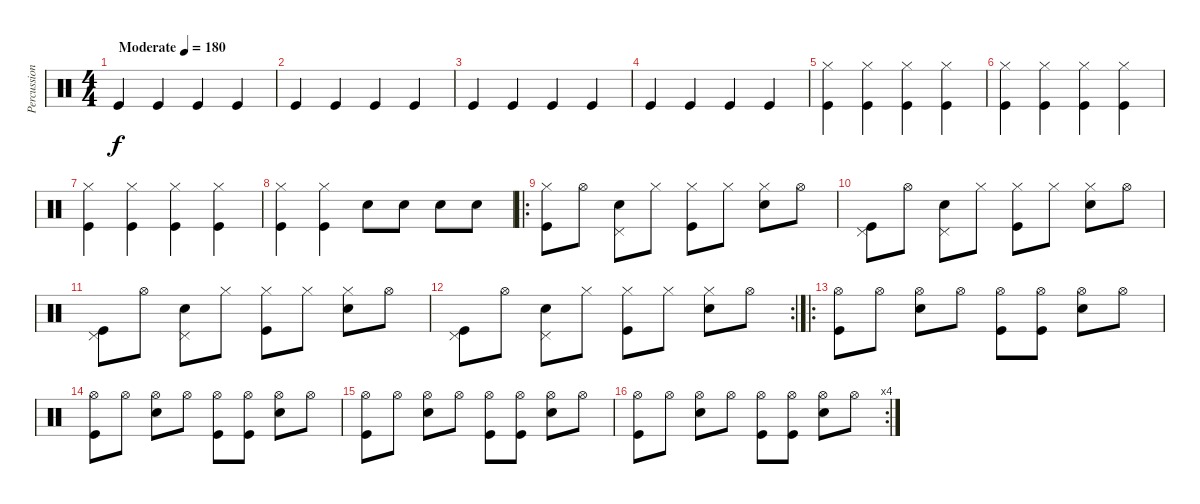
\track ("Percussion" "Percussion") {instrument percussion}
\staff {score}
\articulation defaults
\ts (4 4)
\tempo (180 "Moderate")
\clef neutral
\ks c "Kick (hit)".4{dy f} "Kick (hit)".4 "Kick (hit)".4 "Kick (hit)".4
|
"Kick (hit)".4 "Kick (hit)".4 "Kick (hit)".4 "Kick (hit)".4 |
"Kick (hit)".4 "Kick (hit)".4 "Kick (hit)".4 "Kick (hit)".4 |
"Kick (hit)".4 "Kick (hit)".4 "Kick (hit)".4 "Kick (hit)".4 |
("Hi-Hat (closed)" "Kick (hit)").4 ("Hi-Hat (closed)" "Kick (hit)").4 ("Hi-Hat (closed)" "Kick (hit)").4 ("Hi-Hat (closed)" "Kick (hit)").4 |
("Hi-Hat (closed)" "Kick (hit)").4 ("Hi-Hat (closed)" "Kick (hit)").4 ("Hi-Hat (closed)" "Kick (hit)").4 ("Hi-Hat (closed)" "Kick (hit)").4 |
("Hi-Hat (closed)" "Kick (hit)").4 ("Hi-Hat (closed)" "Kick (hit)").4 ("Hi-Hat (closed)" "Kick (hit)").4 ("Hi-Hat (closed)" "Kick (hit)").4 |
("Hi-Hat (closed)" "Kick (hit)").4 ("Hi-Hat (closed)" "Kick (hit)").4 "Snare (hit) 2".8 "Snare (hit) 2".8 "Snare (hit) 2".8 "Snare (hit) 2".8 |
\ro
("Hi-Hat (closed)" "Kick (hit)").8 "Hi-Hat (open)".8 ("Pedal Hi-Hat (hit)" "Snare (hit) 2").8 "Hi-Hat (closed)".8 ("Hi-Hat (closed)" "Kick (hit)").8 "Hi-Hat (closed)".8 ("Hi-Hat (closed)" "Snare (hit) 2").8 "Hi-Hat (open)".8 |
("Pedal Hi-Hat (hit)" "Kick (hit)").8 "Hi-Hat (open)".8 ("Pedal Hi-Hat (hit)" "Snare (hit) 2").8 "Hi-Hat (closed)".8 ("Hi-Hat (closed)" "Kick (hit)").8 "Hi-Hat (closed)".8 ("Hi-Hat (closed)" "Snare (hit) 2").8 "Hi-Hat (open)".8 |
("Pedal Hi-Hat (hit)" "Kick (hit)").8 "Hi-Hat (open)".8 ("Pedal Hi-Hat (hit)" "Snare (hit) 2").8 "Hi-Hat (closed)".8 ("Hi-Hat (closed)" "Kick (hit)").8 "Hi-Hat (closed)".8 ("Hi-Hat (closed)" "Snare (hit) 2").8 "Hi-Hat (open)".8 |
\rc 2
("Pedal Hi-Hat (hit)" "Kick (hit)").8 "Hi-Hat (open)".8 ("Pedal Hi-Hat (hit)" "Snare (hit) 2").8 "Hi-Hat (closed)".8 ("Hi-Hat (closed)" "Kick (hit)").8 "Hi-Hat (closed)".8 ("Hi-Hat (closed)" "Snare (hit) 2").8 "Hi-Hat (open)".8 |
\ro
("Hi-Hat (open)" "Kick (hit)").8 "Hi-Hat (open)".8 ("Hi-Hat (open)" "Snare (hit) 2").8 "Hi-Hat (open)".8 ("Hi-Hat (open)" "Kick (hit)").8 ("Hi-Hat (open)" "Kick (hit)").8 ("Hi-Hat (open)" "Snare (hit) 2").8 "Hi-Hat (open)".8 |
("Hi-Hat (open)" "Kick (hit)").8 "Hi-Hat (open)".8 ("Hi-Hat (open)" "Snare (hit) 2").8 "Hi-Hat (open)".8 ("Hi-Hat (open)" "Kick (hit)").8 ("Hi-Hat (open)" "Kick (hit)").8 ("Hi-Hat (open)" "Snare (hit) 2").8 "Hi-Hat (open)".8 |
("Hi-Hat (open)" "Kick (hit)").8 "Hi-Hat (open)".8 ("Hi-Hat (open)" "Snare (hit) 2").8 "Hi-Hat (open)".8 ("Hi-Hat (open)" "Kick (hit)").8 ("Hi-Hat (open)" "Kick (hit)").8 ("Hi-Hat (open)" "Snare (hit) 2").8 "Hi-Hat (open)".8 |
\rc 4
("Hi-Hat (open)" "Kick (hit)").8 "Hi-Hat (open)".8 ("Hi-Hat (open)" "Snare (hit) 2").8 "Hi-Hat (open)".8 ("Hi-Hat (open)" "Kick (hit)").8 ("Hi-Hat (open)" "Kick (hit)").8 ("Hi-Hat (open)" "Snare (hit) 2").8 "Hi-Hat (open)".8
